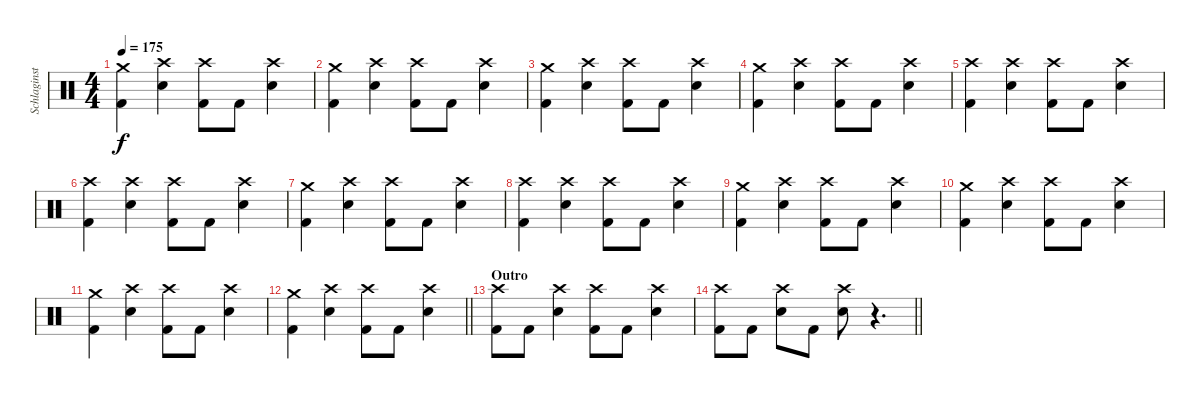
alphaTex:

\track ("Schlaginstrumente - Auswahl" "Schlaginst") {instrument percussion}
\staff {score}
\articulation defaults
\ts (4 4)
\tempo 175
\clef neutral
\ks c
("Crash medium (hit)" "Kick (hit) 2").4{dy f} ("Crash high (hit)" "Snare (hit) 2").4 ("Crash high (hit)" "Kick (hit) 2").8 "Kick (hit) 2".8 ("Crash high (hit)" "Snare (hit) 2").4 |
("Crash medium (hit)" "Kick (hit) 2").4 ("Crash high (hit)" "Snare (hit) 2").4 ("Crash high (hit)" "Kick (hit) 2").8 "Kick (hit) 2".8 ("Crash high (hit)" "Snare (hit) 2").4 |
("Crash medium (hit)" "Kick (hit) 2").4 ("Crash high (hit)" "Snare (hit) 2").4 ("Crash high (hit)" "Kick (hit) 2").8 "Kick (hit) 2".8 ("Crash high (hit)" "Snare (hit) 2").4 |
("Crash medium (hit)" "Kick (hit) 2").4 ("Crash high (hit)" "Snare (hit) 2").4 ("Crash high (hit)" "Kick (hit) 2").8 "Kick (hit) 2".8 ("Crash high (hit)" "Snare (hit) 2").4 |
("Crash high (hit)" "Kick (hit) 2").4 ("Crash high (hit)" "Snare (hit) 2").4 ("Crash high (hit)" "Kick (hit) 2").8 "Kick (hit) 2".8 ("Crash high (hit)" "Snare (hit) 2").4 |
("Crash high (hit)" "Kick (hit) 2").4 ("Crash high (hit)" "Snare (hit) 2").4 ("Crash high (hit)" "Kick (hit) 2").8 "Kick (hit) 2".8 ("Crash high (hit)" "Snare (hit) 2").4 |
("Crash medium (hit)" "Kick (hit) 2").4 ("Crash high (hit)" "Snare (hit) 2").4 ("Crash high (hit)" "Kick (hit) 2").8 "Kick (hit) 2".8 ("Crash high (hit)" "Snare (hit) 2").4 |
("Crash high (hit)" "Kick (hit) 2").4 ("Crash high (hit)" "Snare (hit) 2").4 ("Crash high (hit)" "Kick (hit) 2").8 "Kick (hit) 2".8 ("Crash high (hit)" "Snare (hit) 2").4 |
("Crash medium (hit)" "Kick (hit) 2").4 ("Crash high (hit)" "Snare (hit) 2").4 ("Crash high (hit)" "Kick (hit) 2").8 "Kick (hit) 2".8 ("Crash high (hit)" "Snare (hit) 2").4 |
("Crash medium (hit)" "Kick (hit) 2").4 ("Crash high (hit)" "Snare (hit) 2").4 ("Crash high (hit)" "Kick (hit) 2").8 "Kick (hit) 2".8 ("Crash high (hit)" "Snare (hit) 2").4 |
("Crash medium (hit)" "Kick (hit) 2").4 ("Crash high (hit)" "Snare (hit) 2").4 ("Crash high (hit)" "Kick (hit) 2").8 "Kick (hit) 2".8 ("Crash high (hit)" "Snare (hit) 2").4 |
\barLineRight lightlight
("Crash medium (hit)" "Kick (hit) 2").4 ("Crash high (hit)" "Snare (hit) 2").4 ("Crash high (hit)" "Kick (hit) 2").8 "Kick (hit) 2".8 ("Crash high (hit)" "Snare (hit) 2").4 |
\section ("" "Outro")
("Crash high (hit)" "Kick (hit) 2").8 "Kick (hit) 2".8 ("Crash high (hit)" "Snare (hit) 2").4 ("Crash high (hit)" "Kick (hit) 2").8 "Kick (hit) 2".8 ("Crash high (hit)" "Snare (hit) 2").4 |
\barLineRight lightlight
("Crash high (hit)" "Kick (hit) 2").8 "Kick (hit) 2".8 ("Crash high (hit)" "Snare (hit) 2").8 "Kick (hit) 2".8 ("Crash high (hit)" "Snare (hit) 2").8 r.4{d}
